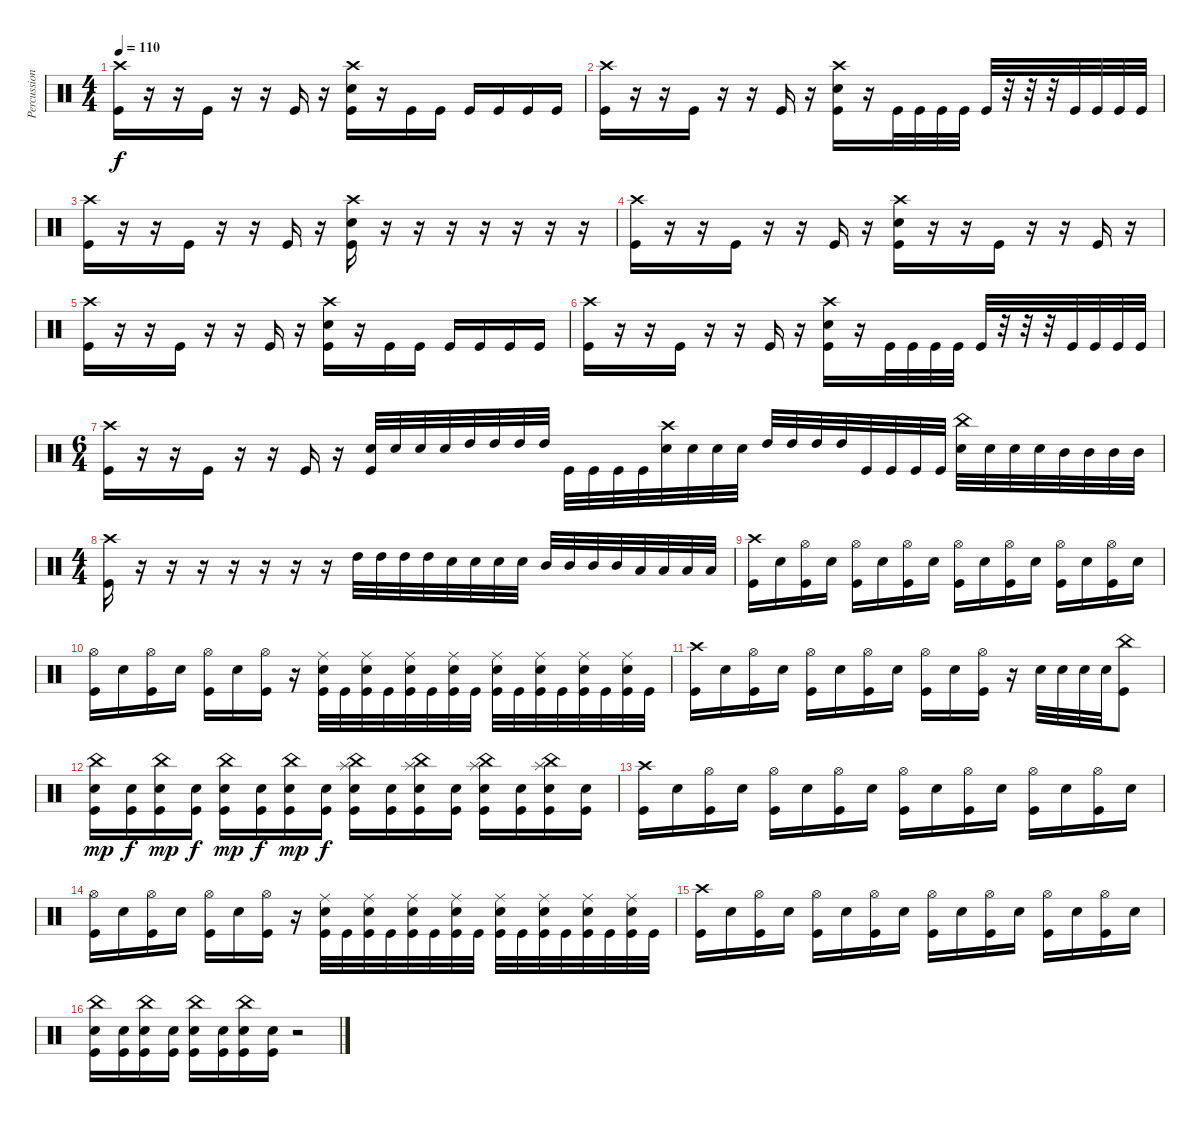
\track ("Percussion" "Percussion") {instrument percussion}
\staff {score}
\articulation defaults
\ts (4 4)
\tempo 110
\clef neutral
\ks c
("Crash high (hit)" "Kick (hit)").16{dy f} r.16 r.16 "Kick (hit)".16 r.16 r.16 "Kick (hit)".16 r.16 ("Crash high (hit)" "Snare (hit) 2" "Kick (hit)").16 r.16 "Kick (hit)".16 "Kick (hit)".16 "Kick (hit)".16 "Kick (hit)".16 "Kick (hit)".16 "Kick (hit)".16 |
("Crash high (hit)" "Kick (hit)").16 r.16 r.16 "Kick (hit)".16 r.16 r.16 "Kick (hit)".16 r.16 ("Crash high (hit)" "Snare (hit) 2" "Kick (hit)").16 r.16 "Kick (hit)".32 "Kick (hit)".32 "Kick (hit)".32 "Kick (hit)".32 "Kick (hit)".32 r.32 r.32 r.32 "Kick (hit)".32 "Kick (hit)".32 "Kick (hit)".32 "Kick (hit)".32 |
("Crash high (hit)" "Kick (hit)").16 r.16 r.16 "Kick (hit)".16 r.16 r.16 "Kick (hit)".16 r.16 ("Crash high (hit)" "Snare (hit) 2" "Kick (hit)").16 r.16 r.16 r.16 r.16 r.16 r.16 r.16 |
("Crash high (hit)" "Kick (hit)").16 r.16 r.16 "Kick (hit)".16 r.16 r.16 "Kick (hit)".16 r.16 ("Crash high (hit)" "Snare (hit) 2" "Kick (hit)").16 r.16 r.16 "Kick (hit)".16 r.16 r.16 "Kick (hit)".16 r.16 |
("Crash high (hit)" "Kick (hit)").16 r.16 r.16 "Kick (hit)".16 r.16 r.16 "Kick (hit)".16 r.16 ("Crash high (hit)" "Snare (hit) 2" "Kick (hit)").16 r.16 "Kick (hit)".16 "Kick (hit)".16 "Kick (hit)".16 "Kick (hit)".16 "Kick (hit)".16 "Kick (hit)".16 |
("Crash high (hit)" "Kick (hit)").16 r.16 r.16 "Kick (hit)".16 r.16 r.16 "Kick (hit)".16 r.16 ("Crash high (hit)" "Snare (hit) 2" "Kick (hit)").16 r.16 "Kick (hit)".32 "Kick (hit)".32 "Kick (hit)".32 "Kick (hit)".32 "Kick (hit)".32 r.32 r.32 r.32 "Kick (hit)".32 "Kick (hit)".32 "Kick (hit)".32 "Kick (hit)".32 |
\ts (6 4)
("Crash high (hit)" "Kick (hit)").16 r.16 r.16 "Kick (hit)".16 r.16 r.16 "Kick (hit)".16 r.16 ("Snare (hit) 2" "Kick (hit)").32 "Snare (hit) 2".32 "Snare (hit) 2".32 "Snare (hit) 2".32 "High Tom (hit)".32 "High Tom (hit)".32 "High Tom (hit)".32 "High Tom (hit)".32 "Kick (hit)".32 "Kick (hit)".32 "Kick (hit)".32 "Kick (hit)".32 ("Crash high (hit)" "Snare (hit) 2").32 "Snare (hit) 2".32 "Snare (hit) 2".32 "Snare (hit) 2".32 "High Tom (hit)".32 "High Tom (hit)".32 "High Tom (hit)".32 "High Tom (hit)".32 "Kick (hit)".32 "Kick (hit)".32 "Kick (hit)".32 "Kick (hit)".32 ("China (hit)" "Snare (hit) 2").32 "Snare (hit) 2".32 "Snare (hit) 2".32 "Snare (hit) 2".32 "Mid Tom (hit)".32 "Mid Tom (hit)".32 "Mid Tom (hit)".32 "Mid Tom (hit)".32 |
\ts (4 4)
("Crash high (hit)" "Kick (hit)").16 r.16 r.16 r.16 r.16 r.16 r.16 r.16 "High Tom (hit)".32 "High Tom (hit)".32 "High Tom (hit)".32 "High Tom (hit)".32 "Snare (hit) 2".32 "Snare (hit) 2".32 "Snare (hit) 2".32 "Snare (hit) 2".32 "Mid Tom (hit)".32 "Mid Tom (hit)".32 "Mid Tom (hit)".32 "Mid Tom (hit)".32 "Low Tom (hit)".32 "Low Tom (hit)".32 "Low Tom (hit)".32 "Low Tom (hit)".32 |
("Crash high (hit)" "Kick (hit)").16 "Snare (hit) 2".16 ("Hi-Hat (open)" "Kick (hit)").16 "Snare (hit) 2".16 ("Hi-Hat (open)" "Kick (hit)").16 "Snare (hit) 2".16 ("Hi-Hat (open)" "Kick (hit)").16 "Snare (hit) 2".16 ("Hi-Hat (open)" "Kick (hit)").16 "Snare (hit) 2".16 ("Hi-Hat (open)" "Kick (hit)").16 "Snare (hit) 2".16 ("Hi-Hat (open)" "Kick (hit)").16 "Snare (hit) 2".16 ("Hi-Hat (open)" "Kick (hit)").16 "Snare (hit) 2".16 |
("Hi-Hat (open)" "Kick (hit)").16 "Snare (hit) 2".16 ("Hi-Hat (open)" "Kick (hit)").16 "Snare (hit) 2".16 ("Hi-Hat (open)" "Kick (hit)").16 "Snare (hit) 2".16 ("Hi-Hat (open)" "Kick (hit)").16 r.16 ("Ride (middle)" "Snare (hit) 2" "Kick (hit)").32 "Kick (hit)".32 ("Ride (middle)" "Snare (hit) 2" "Kick (hit)").32 "Kick (hit)".32 ("Ride (middle)" "Snare (hit) 2" "Kick (hit)").32 "Kick (hit)".32 ("Ride (middle)" "Snare (hit) 2" "Kick (hit)").32 "Kick (hit)".32 ("Ride (middle)" "Snare (hit) 2" "Kick (hit)").32 "Kick (hit)".32 ("Ride (middle)" "Snare (hit) 2" "Kick (hit)").32 "Kick (hit)".32 ("Ride (middle)" "Snare (hit) 2" "Kick (hit)").32 "Kick (hit)".32 ("Ride (middle)" "Snare (hit) 2" "Kick (hit)").32 "Kick (hit)".32 |
("Crash high (hit)" "Kick (hit)").16 "Snare (hit) 2".16 ("Hi-Hat (open)" "Kick (hit)").16 "Snare (hit) 2".16 ("Hi-Hat (open)" "Kick (hit)").16 "Snare (hit) 2".16 ("Hi-Hat (open)" "Kick (hit)").16 "Snare (hit) 2".16 ("Hi-Hat (open)" "Kick (hit)").16 "Snare (hit) 2".16 ("Hi-Hat (open)" "Kick (hit)").16 r.16 "Snare (hit) 2".32 "Snare (hit) 2".32 "Snare (hit) 2".32 "Snare (hit) 2".32 ("China (hit)" "Kick (hit)").8 |
("China (hit)" "Snare (hit) 2" "Kick (hit)").16{dy mp} ("Snare (hit) 2" "Kick (hit)").16{dy f} ("China (hit)" "Snare (hit) 2" "Kick (hit)").16{dy mp} ("Snare (hit) 2" "Kick (hit)").16{dy f} ("China (hit)" "Snare (hit) 2" "Kick (hit)").16{dy mp} ("Snare (hit) 2" "Kick (hit)").16{dy f} ("China (hit)" "Snare (hit) 2" "Kick (hit)").16{dy mp} ("Snare (hit) 2" "Kick (hit)").16{dy f} ("Splash (hit)" "China (hit)" "Snare (hit) 2" "Kick (hit)").16 ("Snare (hit) 2" "Kick (hit)").16 ("Splash (hit)" "China (hit)" "Snare (hit) 2" "Kick (hit)").16 ("Snare (hit) 2" "Kick (hit)").16 ("Splash (hit)" "China (hit)" "Snare (hit) 2" "Kick (hit)").16 ("Snare (hit) 2" "Kick (hit)").16 ("Splash (hit)" "China (hit)" "Snare (hit) 2" "Kick (hit)").16 ("Snare (hit) 2" "Kick (hit)").16 |
("Crash high (hit)" "Kick (hit)").16 "Snare (hit) 2".16 ("Hi-Hat (open)" "Kick (hit)").16 "Snare (hit) 2".16 ("Hi-Hat (open)" "Kick (hit)").16 "Snare (hit) 2".16 ("Hi-Hat (open)" "Kick (hit)").16 "Snare (hit) 2".16 ("Hi-Hat (open)" "Kick (hit)").16 "Snare (hit) 2".16 ("Hi-Hat (open)" "Kick (hit)").16 "Snare (hit) 2".16 ("Hi-Hat (open)" "Kick (hit)").16 "Snare (hit) 2".16 ("Hi-Hat (open)" "Kick (hit)").16 "Snare (hit) 2".16 |
("Hi-Hat (open)" "Kick (hit)").16 "Snare (hit) 2".16 ("Hi-Hat (open)" "Kick (hit)").16 "Snare (hit) 2".16 ("Hi-Hat (open)" "Kick (hit)").16 "Snare (hit) 2".16 ("Hi-Hat (open)" "Kick (hit)").16 r.16 ("Ride (middle)" "Snare (hit) 2" "Kick (hit)").32 "Kick (hit)".32 ("Ride (middle)" "Snare (hit) 2" "Kick (hit)").32 "Kick (hit)".32 ("Ride (middle)" "Snare (hit) 2" "Kick (hit)").32 "Kick (hit)".32 ("Ride (middle)" "Snare (hit) 2" "Kick (hit)").32 "Kick (hit)".32 ("Ride (middle)" "Snare (hit) 2" "Kick (hit)").32 "Kick (hit)".32 ("Ride (middle)" "Snare (hit) 2" "Kick (hit)").32 "Kick (hit)".32 ("Ride (middle)" "Snare (hit) 2" "Kick (hit)").32 "Kick (hit)".32 ("Ride (middle)" "Snare (hit) 2" "Kick (hit)").32 "Kick (hit)".32 |
("Crash high (hit)" "Kick (hit)").16 "Snare (hit) 2".16 ("Hi-Hat (open)" "Kick (hit)").16 "Snare (hit) 2".16 ("Hi-Hat (open)" "Kick (hit)").16 "Snare (hit) 2".16 ("Hi-Hat (open)" "Kick (hit)").16 "Snare (hit) 2".16 ("Hi-Hat (open)" "Kick (hit)").16 "Snare (hit) 2".16 ("Hi-Hat (open)" "Kick (hit)").16 "Snare (hit) 2".16 ("Hi-Hat (open)" "Kick (hit)").16 "Snare (hit) 2".16 ("Hi-Hat (open)" "Kick (hit)").16 "Snare (hit) 2".16 |
("China (hit)" "Snare (hit) 2" "Kick (hit)").16 ("Snare (hit) 2" "Kick (hit)").16 ("China (hit)" "Snare (hit) 2" "Kick (hit)").16 ("Snare (hit) 2" "Kick (hit)").16 ("China (hit)" "Snare (hit) 2" "Kick (hit)").16 ("Snare (hit) 2" "Kick (hit)").16 ("China (hit)" "Snare (hit) 2" "Kick (hit)").16 ("Snare (hit) 2" "Kick (hit)").16 r.2
